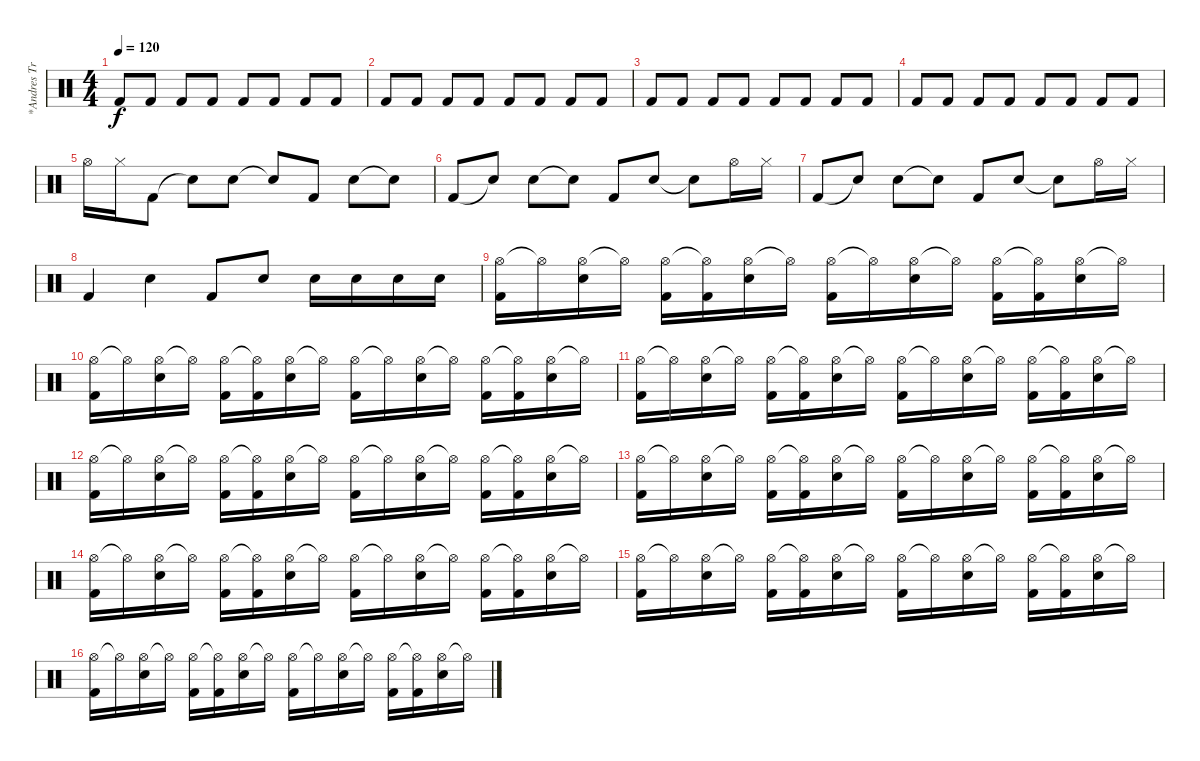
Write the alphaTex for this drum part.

\track ("*Andres Trujillo" "*Andres Tr") {instrument percussion}
\staff {score}
\articulation defaults
\ts (4 4)
\tempo 120
\clef neutral
\ks c "Kick (hit) 2".8{dy f} "Kick (hit) 2".8 "Kick (hit) 2".8 "Kick (hit) 2".8 "Kick (hit) 2".8 "Kick (hit) 2".8 "Kick (hit) 2".8 "Kick (hit) 2".8
|
"Kick (hit) 2".8 "Kick (hit) 2".8 "Kick (hit) 2".8 "Kick (hit) 2".8 "Kick (hit) 2".8 "Kick (hit) 2".8 "Kick (hit) 2".8 "Kick (hit) 2".8 |
"Kick (hit) 2".8 "Kick (hit) 2".8 "Kick (hit) 2".8 "Kick (hit) 2".8 "Kick (hit) 2".8 "Kick (hit) 2".8 "Kick (hit) 2".8 "Kick (hit) 2".8 |
"Kick (hit) 2".8 "Kick (hit) 2".8 "Kick (hit) 2".8 "Kick (hit) 2".8 "Kick (hit) 2".8 "Kick (hit) 2".8 "Kick (hit) 2".8 "Kick (hit) 2".8 |
"Hi-Hat (open)".16 "Hi-Hat (closed)".16 "Kick (hit) 2".8 "Snare (hit)"{t}.8 "Electric Snare (hit)".8 "Snare (hit)"{t}.8 "Kick (hit) 2".8 "Electric Snare (hit)".8 "Snare (hit)"{t}.8 |
"Kick (hit) 2".8 "Snare (hit)"{t}.8 "Electric Snare (hit)".8 "Snare (hit)"{t}.8 "Kick (hit) 2".8 "Electric Snare (hit)".8 "Snare (hit)"{t}.8 "Hi-Hat (open)".16 "Hi-Hat (closed)".16 |
"Kick (hit) 2".8 "Snare (hit)"{t}.8 "Electric Snare (hit)".8 "Snare (hit)"{t}.8 "Kick (hit) 2".8 "Electric Snare (hit)".8 "Snare (hit)"{t}.8 "Hi-Hat (open)".16 "Hi-Hat (closed)".16 |
"Kick (hit) 2".4 "Electric Snare (hit)".4 "Kick (hit) 2".8 "Electric Snare (hit)".8 "Electric Snare (hit)".16 "Electric Snare (hit)".16 "Electric Snare (hit)".16 "Electric Snare (hit)".16 |
("Hi-Hat (open)" "Kick (hit) 2").16 "Hi-Hat (open)"{t}.16 ("Hi-Hat (open)" "Electric Snare (hit)").16 "Hi-Hat (open)"{t}.16 ("Hi-Hat (open)" "Kick (hit) 2").16 ("Hi-Hat (open)"{t} "Kick (hit) 2").16 ("Hi-Hat (open)" "Electric Snare (hit)").16 "Hi-Hat (open)"{t}.16 ("Hi-Hat (open)" "Kick (hit) 2").16 "Hi-Hat (open)"{t}.16 ("Hi-Hat (open)" "Electric Snare (hit)").16 "Hi-Hat (open)"{t}.16 ("Hi-Hat (open)" "Kick (hit) 2").16 ("Hi-Hat (open)"{t} "Kick (hit) 2").16 ("Hi-Hat (open)" "Electric Snare (hit)").16 "Hi-Hat (open)"{t}.16 |
("Hi-Hat (open)" "Kick (hit) 2").16 "Hi-Hat (open)"{t}.16 ("Hi-Hat (open)" "Electric Snare (hit)").16 "Hi-Hat (open)"{t}.16 ("Hi-Hat (open)" "Kick (hit) 2").16 ("Hi-Hat (open)"{t} "Kick (hit) 2").16 ("Hi-Hat (open)" "Electric Snare (hit)").16 "Hi-Hat (open)"{t}.16 ("Hi-Hat (open)" "Kick (hit) 2").16 "Hi-Hat (open)"{t}.16 ("Hi-Hat (open)" "Electric Snare (hit)").16 "Hi-Hat (open)"{t}.16 ("Hi-Hat (open)" "Kick (hit) 2").16 ("Hi-Hat (open)"{t} "Kick (hit) 2").16 ("Hi-Hat (open)" "Electric Snare (hit)").16 "Hi-Hat (open)"{t}.16 |
("Hi-Hat (open)" "Kick (hit) 2").16 "Hi-Hat (open)"{t}.16 ("Hi-Hat (open)" "Electric Snare (hit)").16 "Hi-Hat (open)"{t}.16 ("Hi-Hat (open)" "Kick (hit) 2").16 ("Hi-Hat (open)"{t} "Kick (hit) 2").16 ("Hi-Hat (open)" "Electric Snare (hit)").16 "Hi-Hat (open)"{t}.16 ("Hi-Hat (open)" "Kick (hit) 2").16 "Hi-Hat (open)"{t}.16 ("Hi-Hat (open)" "Electric Snare (hit)").16 "Hi-Hat (open)"{t}.16 ("Hi-Hat (open)" "Kick (hit) 2").16 ("Hi-Hat (open)"{t} "Kick (hit) 2").16 ("Hi-Hat (open)" "Electric Snare (hit)").16 "Hi-Hat (open)"{t}.16 |
("Hi-Hat (open)" "Kick (hit) 2").16 "Hi-Hat (open)"{t}.16 ("Hi-Hat (open)" "Electric Snare (hit)").16 "Hi-Hat (open)"{t}.16 ("Hi-Hat (open)" "Kick (hit) 2").16 ("Hi-Hat (open)"{t} "Kick (hit) 2").16 ("Hi-Hat (open)" "Electric Snare (hit)").16 "Hi-Hat (open)"{t}.16 ("Hi-Hat (open)" "Kick (hit) 2").16 "Hi-Hat (open)"{t}.16 ("Hi-Hat (open)" "Electric Snare (hit)").16 "Hi-Hat (open)"{t}.16 ("Hi-Hat (open)" "Kick (hit) 2").16 ("Hi-Hat (open)"{t} "Kick (hit) 2").16 ("Hi-Hat (open)" "Electric Snare (hit)").16 "Hi-Hat (open)"{t}.16 |
("Hi-Hat (open)" "Kick (hit) 2").16 "Hi-Hat (open)"{t}.16 ("Hi-Hat (open)" "Electric Snare (hit)").16 "Hi-Hat (open)"{t}.16 ("Hi-Hat (open)" "Kick (hit) 2").16 ("Hi-Hat (open)"{t} "Kick (hit) 2").16 ("Hi-Hat (open)" "Electric Snare (hit)").16 "Hi-Hat (open)"{t}.16 ("Hi-Hat (open)" "Kick (hit) 2").16 "Hi-Hat (open)"{t}.16 ("Hi-Hat (open)" "Electric Snare (hit)").16 "Hi-Hat (open)"{t}.16 ("Hi-Hat (open)" "Kick (hit) 2").16 ("Hi-Hat (open)"{t} "Kick (hit) 2").16 ("Hi-Hat (open)" "Electric Snare (hit)").16 "Hi-Hat (open)"{t}.16 |
("Hi-Hat (open)" "Kick (hit) 2").16 "Hi-Hat (open)"{t}.16 ("Hi-Hat (open)" "Electric Snare (hit)").16 "Hi-Hat (open)"{t}.16 ("Hi-Hat (open)" "Kick (hit) 2").16 ("Hi-Hat (open)"{t} "Kick (hit) 2").16 ("Hi-Hat (open)" "Electric Snare (hit)").16 "Hi-Hat (open)"{t}.16 ("Hi-Hat (open)" "Kick (hit) 2").16 "Hi-Hat (open)"{t}.16 ("Hi-Hat (open)" "Electric Snare (hit)").16 "Hi-Hat (open)"{t}.16 ("Hi-Hat (open)" "Kick (hit) 2").16 ("Hi-Hat (open)"{t} "Kick (hit) 2").16 ("Hi-Hat (open)" "Electric Snare (hit)").16 "Hi-Hat (open)"{t}.16 |
("Hi-Hat (open)" "Kick (hit) 2").16 "Hi-Hat (open)"{t}.16 ("Hi-Hat (open)" "Electric Snare (hit)").16 "Hi-Hat (open)"{t}.16 ("Hi-Hat (open)" "Kick (hit) 2").16 ("Hi-Hat (open)"{t} "Kick (hit) 2").16 ("Hi-Hat (open)" "Electric Snare (hit)").16 "Hi-Hat (open)"{t}.16 ("Hi-Hat (open)" "Kick (hit) 2").16 "Hi-Hat (open)"{t}.16 ("Hi-Hat (open)" "Electric Snare (hit)").16 "Hi-Hat (open)"{t}.16 ("Hi-Hat (open)" "Kick (hit) 2").16 ("Hi-Hat (open)"{t} "Kick (hit) 2").16 ("Hi-Hat (open)" "Electric Snare (hit)").16 "Hi-Hat (open)"{t}.16 |
("Hi-Hat (open)" "Kick (hit) 2").16 "Hi-Hat (open)"{t}.16 ("Hi-Hat (open)" "Electric Snare (hit)").16 "Hi-Hat (open)"{t}.16 ("Hi-Hat (open)" "Kick (hit) 2").16 ("Hi-Hat (open)"{t} "Kick (hit) 2").16 ("Hi-Hat (open)" "Electric Snare (hit)").16 "Hi-Hat (open)"{t}.16 ("Hi-Hat (open)" "Kick (hit) 2").16 "Hi-Hat (open)"{t}.16 ("Hi-Hat (open)" "Electric Snare (hit)").16 "Hi-Hat (open)"{t}.16 ("Hi-Hat (open)" "Kick (hit) 2").16 ("Hi-Hat (open)"{t} "Kick (hit) 2").16 ("Hi-Hat (open)" "Electric Snare (hit)").16 "Hi-Hat (open)"{t}.16
